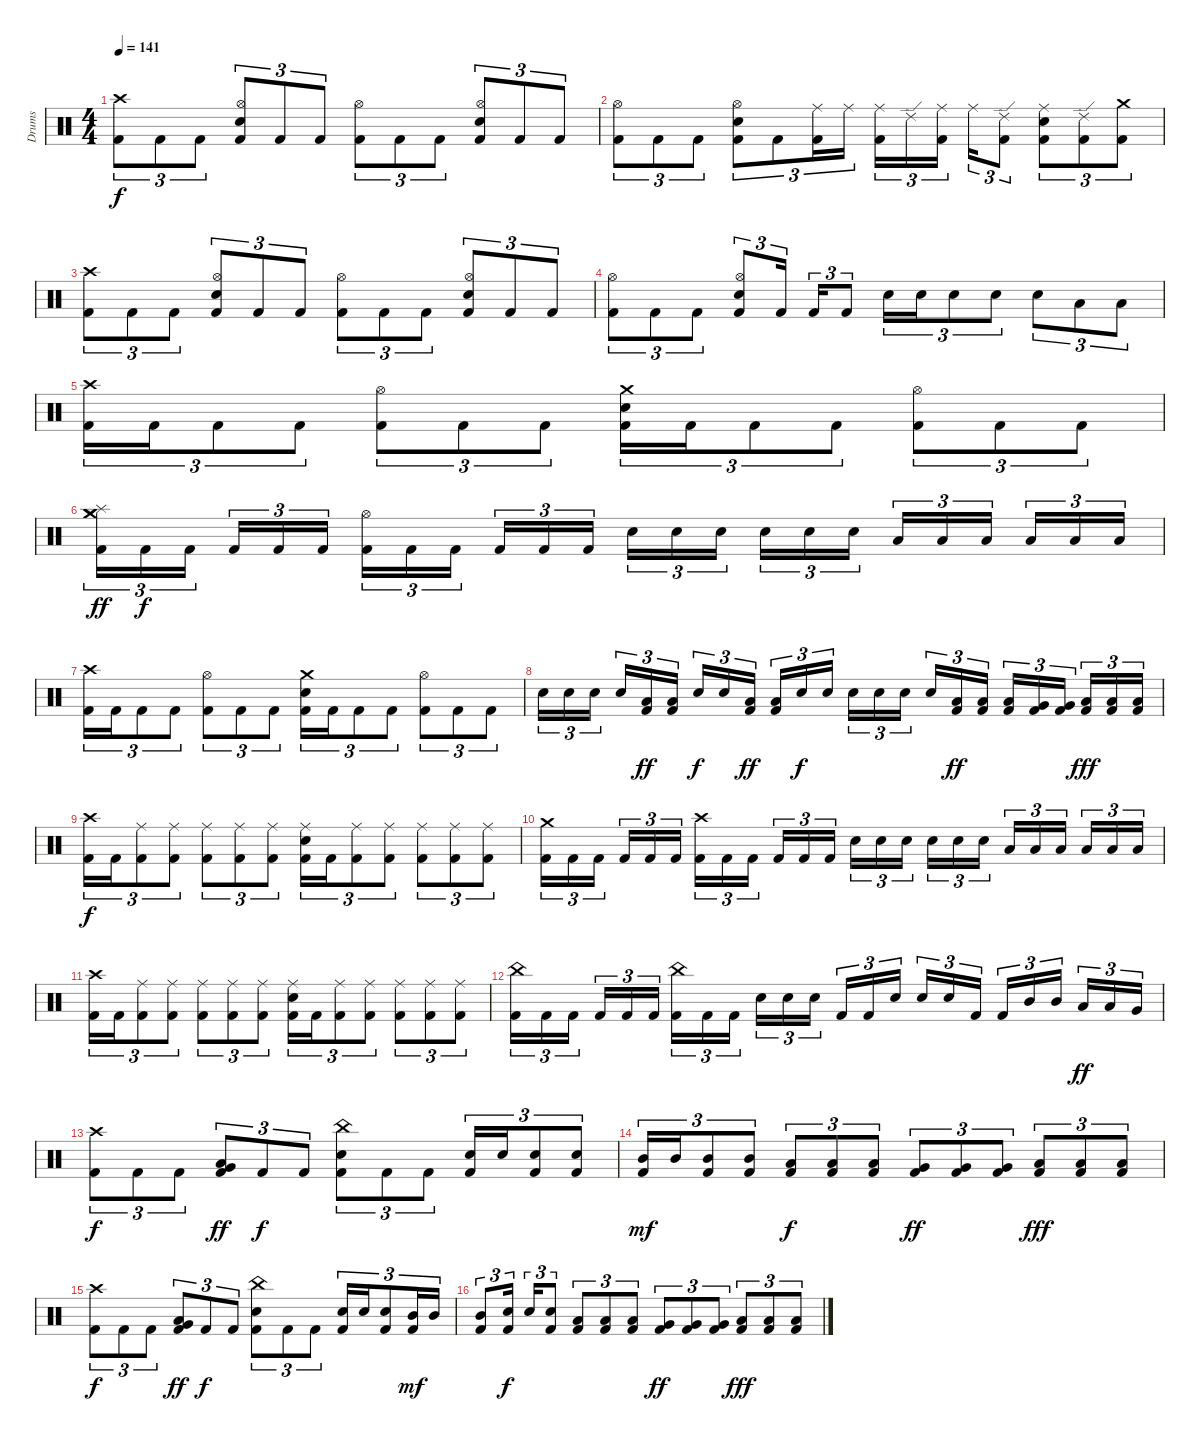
\track ("Drums" "Drums") {instrument percussion}
\staff {score}
\articulation defaults
\ts (4 4)
\tempo 141
\clef neutral
\ks c
("Crash high (hit)" "Kick (hit) 2").8{tu (3 2) dy f} "Kick (hit) 2".8{tu (3 2)} "Kick (hit) 2".8{tu (3 2)} ("Hi-Hat (open)" "Electric Snare (hit)" "Kick (hit) 2").8{tu (3 2)} "Kick (hit) 2".8{tu (3 2)} "Kick (hit) 2".8{tu (3 2)} ("Hi-Hat (open)" "Kick (hit) 2").8{tu (3 2)} "Kick (hit) 2".8{tu (3 2)} "Kick (hit) 2".8{tu (3 2)} ("Hi-Hat (open)" "Electric Snare (hit)" "Kick (hit) 2").8{tu (3 2)} "Kick (hit) 2".8{tu (3 2)} "Kick (hit) 2".8{tu (3 2)} |
("Hi-Hat (open)" "Kick (hit) 2").8{tu (3 2)} "Kick (hit) 2".8{tu (3 2)} "Kick (hit) 2".8{tu (3 2)} ("Hi-Hat (open)" "Electric Snare (hit)" "Kick (hit) 2").8{tu (3 2)} "Kick (hit) 2".8{tu (3 2)} ("Ride (middle)" "Kick (hit) 2").16{tu (3 2)} "Ride (middle)".16{tu (3 2)} ("Ride (middle)" "Kick (hit) 2").16{tu (3 2)} "Ride (edge) 2".16{tu (3 2)} ("Ride (middle)" "Kick (hit) 2").16{tu (3 2)} "Ride (middle)".16{tu (3 2)} ("Ride (edge) 2" "Kick (hit) 2").8{tu (3 2)} ("Ride (middle)" "Electric Snare (hit)" "Kick (hit) 2").8{tu (3 2)} ("Ride (edge) 2" "Kick (hit) 2").8{tu (3 2)} ("Crash medium (hit)" "Kick (hit) 2").8{tu (3 2)} |
("Crash high (hit)" "Kick (hit) 2").8{tu (3 2)} "Kick (hit) 2".8{tu (3 2)} "Kick (hit) 2".8{tu (3 2)} ("Hi-Hat (open)" "Electric Snare (hit)" "Kick (hit) 2").8{tu (3 2)} "Kick (hit) 2".8{tu (3 2)} "Kick (hit) 2".8{tu (3 2)} ("Hi-Hat (open)" "Kick (hit) 2").8{tu (3 2)} "Kick (hit) 2".8{tu (3 2)} "Kick (hit) 2".8{tu (3 2)} ("Hi-Hat (open)" "Electric Snare (hit)" "Kick (hit) 2").8{tu (3 2)} "Kick (hit) 2".8{tu (3 2)} "Kick (hit) 2".8{tu (3 2)} |
("Hi-Hat (open)" "Kick (hit) 2").8{tu (3 2)} "Kick (hit) 2".8{tu (3 2)} "Kick (hit) 2".8{tu (3 2)} ("Hi-Hat (open)" "Electric Snare (hit)" "Kick (hit) 2").8{tu (3 2)} "Kick (hit) 2".16{tu (3 2)} "Kick (hit) 2".16{tu (3 2)} "Kick (hit) 2".8{tu (3 2)} "Electric Snare (hit)".16{tu (3 2)} "Electric Snare (hit)".16{tu (3 2)} "Electric Snare (hit)".8{tu (3 2)} "Electric Snare (hit)".8{tu (3 2)} "Electric Snare (hit)".8{tu (3 2)} "Low Tom (hit)".8{tu (3 2)} "Low Tom (hit)".8{tu (3 2)} |
("Crash high (hit)" "Kick (hit) 2").16{tu (3 2)} "Kick (hit) 2".16{tu (3 2)} "Kick (hit) 2".8{tu (3 2)} "Kick (hit) 2".8{tu (3 2)} ("Hi-Hat (open)" "Kick (hit) 2").8{tu (3 2)} "Kick (hit) 2".8{tu (3 2)} "Kick (hit) 2".8{tu (3 2)} ("Crash medium (hit)" "Electric Snare (hit)" "Kick (hit) 2").16{tu (3 2)} "Kick (hit) 2".16{tu (3 2)} "Kick (hit) 2".8{tu (3 2)} "Kick (hit) 2".8{tu (3 2)} ("Hi-Hat (open)" "Kick (hit) 2").8{tu (3 2)} "Kick (hit) 2".8{tu (3 2)} "Kick (hit) 2".8{tu (3 2)} |
("Crash medium (hit)" "Splash (hit)" "Crash medium (hit)" "Kick (hit) 2").16{tu (3 2) dy ff} "Kick (hit) 2".16{tu (3 2) dy f} "Kick (hit) 2".16{tu (3 2)} "Kick (hit) 2".16{tu (3 2)} "Kick (hit) 2".16{tu (3 2)} "Kick (hit) 2".16{tu (3 2)} ("Hi-Hat (open)" "Kick (hit) 2").16{tu (3 2)} "Kick (hit) 2".16{tu (3 2)} "Kick (hit) 2".16{tu (3 2)} "Kick (hit) 2".16{tu (3 2)} "Kick (hit) 2".16{tu (3 2)} "Kick (hit) 2".16{tu (3 2)} "Electric Snare (hit)".16{tu (3 2)} "Electric Snare (hit)".16{tu (3 2)} "Electric Snare (hit)".16{tu (3 2)} "Electric Snare (hit)".16{tu (3 2)} "Electric Snare (hit)".16{tu (3 2)} "Electric Snare (hit)".16{tu (3 2)} "Low Tom (hit)".16{tu (3 2)} "Low Tom (hit)".16{tu (3 2)} "Low Tom (hit)".16{tu (3 2)} "Low Tom (hit)".16{tu (3 2)} "Low Tom (hit)".16{tu (3 2)} "Low Tom (hit)".16{tu (3 2)} |
("Crash high (hit)" "Kick (hit) 2").16{tu (3 2)} "Kick (hit) 2".16{tu (3 2)} "Kick (hit) 2".8{tu (3 2)} "Kick (hit) 2".8{tu (3 2)} ("Hi-Hat (open)" "Kick (hit) 2").8{tu (3 2)} "Kick (hit) 2".8{tu (3 2)} "Kick (hit) 2".8{tu (3 2)} ("Crash medium (hit)" "Electric Snare (hit)" "Kick (hit) 2").16{tu (3 2)} "Kick (hit) 2".16{tu (3 2)} "Kick (hit) 2".8{tu (3 2)} "Kick (hit) 2".8{tu (3 2)} ("Hi-Hat (open)" "Kick (hit) 2").8{tu (3 2)} "Kick (hit) 2".8{tu (3 2)} "Kick (hit) 2".8{tu (3 2)} |
"Electric Snare (hit)".16{tu (3 2)} "Electric Snare (hit)".16{tu (3 2)} "Electric Snare (hit)".16{tu (3 2)} "Electric Snare (hit)".16{tu (3 2)} ("Low Tom (hit)" "Kick (hit) 2").16{tu (3 2) dy ff} ("Low Tom (hit)" "Kick (hit) 2").16{tu (3 2)} "Electric Snare (hit)".16{tu (3 2) dy f} "Electric Snare (hit)".16{tu (3 2)} ("Low Tom (hit)" "Kick (hit) 2").16{tu (3 2) dy ff} ("Low Tom (hit)" "Kick (hit) 2").16{tu (3 2)} "Electric Snare (hit)".16{tu (3 2) dy f} "Electric Snare (hit)".16{tu (3 2)} "Electric Snare (hit)".16{tu (3 2)} "Electric Snare (hit)".16{tu (3 2)} "Electric Snare (hit)".16{tu (3 2)} "Electric Snare (hit)".16{tu (3 2)} ("Low Tom (hit)" "Kick (hit) 2").16{tu (3 2) dy ff} ("Low Tom (hit)" "Kick (hit) 2").16{tu (3 2)} ("Low Tom (hit)" "Kick (hit) 2").16{tu (3 2)} ("Very Low Tom (hit)" "Kick (hit) 2").16{tu (3 2)} ("Very Low Tom (hit)" "Kick (hit) 2").16{tu (3 2)} ("Low Floor Tom (hit)" "Kick (hit) 2").16{tu (3 2) dy fff} ("Low Floor Tom (hit)" "Kick (hit) 2").16{tu (3 2)} ("Low Floor Tom (hit)" "Kick (hit) 2").16{tu (3 2)} |
("Crash high (hit)" "Kick (hit) 2").16{tu (3 2) dy f} "Kick (hit) 2".16{tu (3 2)} ("Ride (middle)" "Kick (hit) 2").8{tu (3 2)} ("Ride (middle)" "Kick (hit) 2").8{tu (3 2)} ("Ride (middle)" "Kick (hit) 2").8{tu (3 2)} ("Ride (middle)" "Kick (hit) 2").8{tu (3 2)} ("Ride (middle)" "Kick (hit) 2").8{tu (3 2)} ("Ride (middle)" "Electric Snare (hit)" "Kick (hit) 2").16{tu (3 2)} "Kick (hit) 2".16{tu (3 2)} ("Ride (middle)" "Kick (hit) 2").8{tu (3 2)} ("Ride (middle)" "Kick (hit) 2").8{tu (3 2)} ("Ride (middle)" "Kick (hit) 2").8{tu (3 2)} ("Ride (middle)" "Kick (hit) 2").8{tu (3 2)} ("Ride (middle)" "Kick (hit) 2").8{tu (3 2)} |
("Crash medium (hit)" "Kick (hit) 2").16{tu (3 2)} "Kick (hit) 2".16{tu (3 2)} "Kick (hit) 2".16{tu (3 2)} "Kick (hit) 2".16{tu (3 2)} "Kick (hit) 2".16{tu (3 2)} "Kick (hit) 2".16{tu (3 2)} ("Crash high (hit)" "Kick (hit) 2").16{tu (3 2)} "Kick (hit) 2".16{tu (3 2)} "Kick (hit) 2".16{tu (3 2)} "Kick (hit) 2".16{tu (3 2)} "Kick (hit) 2".16{tu (3 2)} "Kick (hit) 2".16{tu (3 2)} "Electric Snare (hit)".16{tu (3 2)} "Electric Snare (hit)".16{tu (3 2)} "Electric Snare (hit)".16{tu (3 2)} "Electric Snare (hit)".16{tu (3 2)} "Electric Snare (hit)".16{tu (3 2)} "Electric Snare (hit)".16{tu (3 2)} "Low Tom (hit)".16{tu (3 2)} "Low Tom (hit)".16{tu (3 2)} "Low Tom (hit)".16{tu (3 2)} "Low Tom (hit)".16{tu (3 2)} "Low Tom (hit)".16{tu (3 2)} "Low Tom (hit)".16{tu (3 2)} |
("Crash high (hit)" "Kick (hit) 2").16{tu (3 2)} "Kick (hit) 2".16{tu (3 2)} ("Ride (middle)" "Kick (hit) 2").8{tu (3 2)} ("Ride (middle)" "Kick (hit) 2").8{tu (3 2)} ("Ride (middle)" "Kick (hit) 2").8{tu (3 2)} ("Ride (middle)" "Kick (hit) 2").8{tu (3 2)} ("Ride (middle)" "Kick (hit) 2").8{tu (3 2)} ("Ride (middle)" "Electric Snare (hit)" "Kick (hit) 2").16{tu (3 2)} "Kick (hit) 2".16{tu (3 2)} ("Ride (middle)" "Kick (hit) 2").8{tu (3 2)} ("Ride (middle)" "Kick (hit) 2").8{tu (3 2)} ("Ride (middle)" "Kick (hit) 2").8{tu (3 2)} ("Ride (middle)" "Kick (hit) 2").8{tu (3 2)} ("Ride (middle)" "Kick (hit) 2").8{tu (3 2)} |
("China (hit)" "Kick (hit) 2").16{tu (3 2)} "Kick (hit) 2".16{tu (3 2)} "Kick (hit) 2".16{tu (3 2)} "Kick (hit) 2".16{tu (3 2)} "Kick (hit) 2".16{tu (3 2)} "Kick (hit) 2".16{tu (3 2)} ("China (hit)" "Kick (hit) 2").16{tu (3 2)} "Kick (hit) 2".16{tu (3 2)} "Kick (hit) 2".16{tu (3 2)} "Electric Snare (hit)".16{tu (3 2)} "Electric Snare (hit)".16{tu (3 2)} "Electric Snare (hit)".16{tu (3 2)} "Kick (hit) 2".16{tu (3 2)} "Kick (hit) 2".16{tu (3 2)} "Electric Snare (hit)".16{tu (3 2)} "Electric Snare (hit)".16{tu (3 2)} "Electric Snare (hit)".16{tu (3 2)} "Kick (hit) 2".16{tu (3 2)} "Kick (hit) 2".16{tu (3 2)} "Mid Tom (hit)".16{tu (3 2)} "Mid Tom (hit)".16{tu (3 2)} "Low Tom (hit)".16{tu (3 2) dy ff} "Low Tom (hit)".16{tu (3 2)} "Very Low Tom (hit)".16{tu (3 2)} |
("Crash high (hit)" "Kick (hit) 2").8{tu (3 2) dy f} "Kick (hit) 2".8{tu (3 2)} "Kick (hit) 2".8{tu (3 2)} ("Very Low Tom (hit)" "Low Tom (hit)" "Kick (hit) 2").8{tu (3 2) dy ff} "Kick (hit) 2".8{tu (3 2) dy f} "Kick (hit) 2".8{tu (3 2)} ("China (hit)" "Electric Snare (hit)" "Kick (hit) 2").8{tu (3 2)} "Kick (hit) 2".8{tu (3 2)} "Kick (hit) 2".8{tu (3 2)} ("Electric Snare (hit)" "Kick (hit) 2").16{tu (3 2)} "Electric Snare (hit)".16{tu (3 2)} ("Electric Snare (hit)" "Kick (hit) 2").8{tu (3 2)} ("Electric Snare (hit)" "Kick (hit) 2").8{tu (3 2)} |
("Mid Tom (hit)" "Kick (hit) 2").16{tu (3 2) dy mf} "Mid Tom (hit)".16{tu (3 2)} ("Mid Tom (hit)" "Kick (hit) 2").8{tu (3 2)} ("Mid Tom (hit)" "Kick (hit) 2").8{tu (3 2)} ("Low Tom (hit)" "Kick (hit) 2").8{tu (3 2) dy f} ("Low Tom (hit)" "Kick (hit) 2").8{tu (3 2)} ("Low Tom (hit)" "Kick (hit) 2").8{tu (3 2)} ("Very Low Tom (hit)" "Kick (hit) 2").8{tu (3 2) dy ff} ("Very Low Tom (hit)" "Kick (hit) 2").8{tu (3 2)} ("Very Low Tom (hit)" "Kick (hit) 2").8{tu (3 2)} ("Low Floor Tom (hit)" "Kick (hit) 2").8{tu (3 2) dy fff} ("Low Floor Tom (hit)" "Kick (hit) 2").8{tu (3 2)} ("Low Floor Tom (hit)" "Kick (hit) 2").8{tu (3 2)} |
("Crash high (hit)" "Kick (hit) 2").8{tu (3 2) dy f} "Kick (hit) 2".8{tu (3 2)} "Kick (hit) 2".8{tu (3 2)} ("Very Low Tom (hit)" "Low Tom (hit)" "Kick (hit) 2").8{tu (3 2) dy ff} "Kick (hit) 2".8{tu (3 2) dy f} "Kick (hit) 2".8{tu (3 2)} ("China (hit)" "Electric Snare (hit)" "Kick (hit) 2").8{tu (3 2)} "Kick (hit) 2".8{tu (3 2)} "Kick (hit) 2".8{tu (3 2)} ("Electric Snare (hit)" "Kick (hit) 2").16{tu (3 2)} "Electric Snare (hit)".16{tu (3 2)} ("Electric Snare (hit)" "Kick (hit) 2").8{tu (3 2)} ("Mid Tom (hit)" "Kick (hit) 2").16{tu (3 2) dy mf} "Mid Tom (hit)".16{tu (3 2)} |
("Mid Tom (hit)" "Kick (hit) 2").8{tu (3 2)} ("Electric Snare (hit)" "Kick (hit) 2").16{tu (3 2) dy f} "Electric Snare (hit)".16{tu (3 2)} ("Electric Snare (hit)" "Kick (hit) 2").8{tu (3 2)} ("Low Tom (hit)" "Kick (hit) 2").8{tu (3 2)} ("Low Tom (hit)" "Kick (hit) 2").8{tu (3 2)} ("Low Tom (hit)" "Kick (hit) 2").8{tu (3 2)} ("Very Low Tom (hit)" "Kick (hit) 2").8{tu (3 2) dy ff} ("Very Low Tom (hit)" "Kick (hit) 2").8{tu (3 2)} ("Very Low Tom (hit)" "Kick (hit) 2").8{tu (3 2)} ("Low Floor Tom (hit)" "Kick (hit) 2").8{tu (3 2) dy fff} ("Low Floor Tom (hit)" "Kick (hit) 2").8{tu (3 2)} ("Low Floor Tom (hit)" "Kick (hit) 2").8{tu (3 2)}
